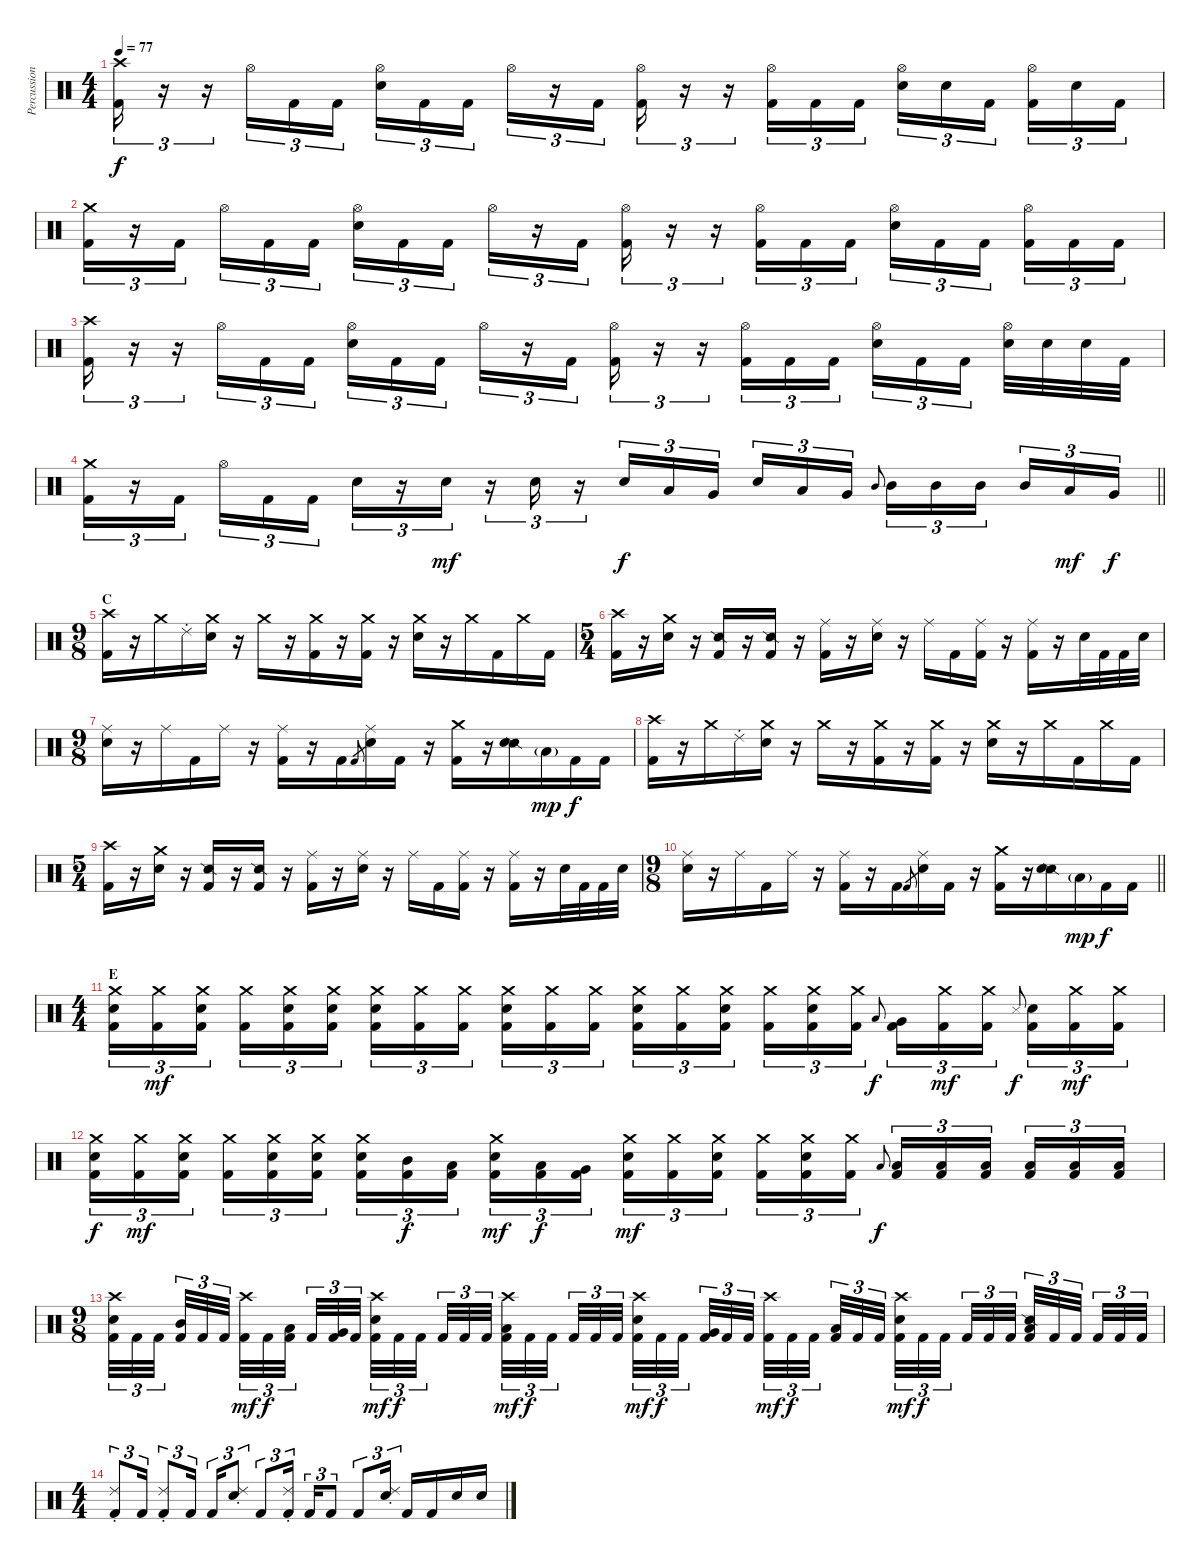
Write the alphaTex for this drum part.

\track ("Percussion" "Percussion") {instrument percussion}
\staff {score}
\articulation defaults
\ts (4 4)
\tempo 77
\clef neutral
\ks c
("Crash high (hit)" "Kick (hit) 2").16{tu (3 2) dy f} r.16{tu (3 2)} r.16{tu (3 2)} "Hi-Hat (open)".16{tu (3 2)} "Kick (hit) 2".16{tu (3 2)} "Kick (hit) 2".16{tu (3 2)} ("Hi-Hat (open)" "Snare (hit) 2").16{tu (3 2)} "Kick (hit) 2".16{tu (3 2)} "Kick (hit) 2".16{tu (3 2) beam splitsecondary} "Hi-Hat (open)".16{tu (3 2)} r.16{tu (3 2)} "Kick (hit) 2".16{tu (3 2)} ("Hi-Hat (open)" "Kick (hit) 2").16{tu (3 2)} r.16{tu (3 2)} r.16{tu (3 2)} ("Hi-Hat (open)" "Kick (hit) 2").16{tu (3 2)} "Kick (hit) 2".16{tu (3 2)} "Kick (hit) 2".16{tu (3 2)} ("Hi-Hat (open)" "Snare (hit) 2").16{tu (3 2)} "Snare (hit) 2".16{tu (3 2)} "Kick (hit) 2".16{tu (3 2) beam splitsecondary} ("Hi-Hat (open)" "Kick (hit) 2").16{tu (3 2)} "Snare (hit) 2".16{tu (3 2)} "Kick (hit) 2".16{tu (3 2)} |
("Crash medium (hit)" "Kick (hit) 2").16{tu (3 2)} r.16{tu (3 2)} "Kick (hit) 2".16{tu (3 2) beam splitsecondary} "Hi-Hat (open)".16{tu (3 2)} "Kick (hit) 2".16{tu (3 2)} "Kick (hit) 2".16{tu (3 2)} ("Hi-Hat (open)" "Snare (hit) 2").16{tu (3 2)} "Kick (hit) 2".16{tu (3 2)} "Kick (hit) 2".16{tu (3 2) beam splitsecondary} "Hi-Hat (open)".16{tu (3 2)} r.16{tu (3 2)} "Kick (hit) 2".16{tu (3 2)} ("Hi-Hat (open)" "Kick (hit) 2").16{tu (3 2)} r.16{tu (3 2)} r.16{tu (3 2)} ("Hi-Hat (open)" "Kick (hit) 2").16{tu (3 2)} "Kick (hit) 2".16{tu (3 2)} "Kick (hit) 2".16{tu (3 2)} ("Hi-Hat (open)" "Snare (hit) 2").16{tu (3 2)} "Kick (hit) 2".16{tu (3 2)} "Kick (hit) 2".16{tu (3 2) beam splitsecondary} ("Hi-Hat (open)" "Kick (hit) 2").16{tu (3 2)} "Kick (hit) 2".16{tu (3 2)} "Kick (hit) 2".16{tu (3 2)} |
("Crash high (hit)" "Kick (hit) 2").16{tu (3 2)} r.16{tu (3 2)} r.16{tu (3 2)} "Hi-Hat (open)".16{tu (3 2)} "Kick (hit) 2".16{tu (3 2)} "Kick (hit) 2".16{tu (3 2)} ("Hi-Hat (open)" "Snare (hit) 2").16{tu (3 2)} "Kick (hit) 2".16{tu (3 2)} "Kick (hit) 2".16{tu (3 2) beam splitsecondary} "Hi-Hat (open)".16{tu (3 2)} r.16{tu (3 2)} "Kick (hit) 2".16{tu (3 2)} ("Hi-Hat (open)" "Kick (hit) 2").16{tu (3 2)} r.16{tu (3 2)} r.16{tu (3 2)} ("Hi-Hat (open)" "Kick (hit) 2").16{tu (3 2)} "Kick (hit) 2".16{tu (3 2)} "Kick (hit) 2".16{tu (3 2)} ("Hi-Hat (open)" "Snare (hit) 2").16{tu (3 2)} "Kick (hit) 2".16{tu (3 2)} "Kick (hit) 2".16{tu (3 2) beam splitsecondary} ("Hi-Hat (open)" "Snare (hit) 2").32 "Snare (hit) 2".32 "Snare (hit) 2".32 "Kick (hit) 2".32 |
\barLineRight lightlight
("Crash medium (hit)" "Kick (hit) 2").16{tu (3 2)} r.16{tu (3 2)} "Kick (hit) 2".16{tu (3 2) beam splitsecondary} "Hi-Hat (open)".16{tu (3 2)} "Kick (hit) 2".16{tu (3 2)} "Kick (hit) 2".16{tu (3 2)} "Snare (hit) 2".16{tu (3 2)} r.16{tu (3 2)} "Snare (hit) 2".16{tu (3 2) dy mf} r.16{tu (3 2)} "Snare (hit) 2".16{tu (3 2)} r.16{tu (3 2)} "Snare (hit) 2".16{tu (3 2) dy f} "Low Tom (hit)".16{tu (3 2)} "Very Low Tom (hit)".16{tu (3 2) beam splitsecondary} "Snare (hit) 2".16{tu (3 2)} "Low Tom (hit)".16{tu (3 2)} "Very Low Tom (hit)".16{tu (3 2)} "Mid Tom (hit)".8{gr onbeat} "Mid Tom (hit)".16{tu (3 2)} "Mid Tom (hit)".16{tu (3 2)} "Mid Tom (hit)".16{tu (3 2) beam splitsecondary} "Mid Tom (hit)".16{tu (3 2)} "Low Tom (hit)".16{tu (3 2) dy mf} "Very Low Tom (hit)".16{tu (3 2) dy f} |
\ts (9 8)
\section ("" "C")
("Crash high (hit)" "Kick (hit) 2").16 r.16 "Crash medium (hit)".16 "Ride (choke) 2".16 ("Crash medium (hit)" "Snare (hit) 2").16 r.16 "Crash medium (hit)".16 r.16 ("Crash medium (hit)" "Kick (hit) 2").16 r.16 ("Crash medium (hit)" "Kick (hit) 2").16 r.16 ("Crash medium (hit)" "Snare (hit) 2").16 r.16 "Crash medium (hit)".16 "Kick (hit) 2".16 "Crash medium (hit)".16 "Kick (hit) 2".16 |
\ts (5 4)
("Crash high (hit)" "Kick (hit) 2").16 r.16 ("Crash medium (hit)" "Snare (hit) 2").16 r.16 ("Snare (side stick) 2" "Kick (hit) 2").16 r.16 ("Snare (side stick) 2" "Kick (hit) 2").16 r.16 ("Ride (middle)" "Kick (hit) 2").16 r.16 ("Ride (middle)" "Snare (hit) 2").16 r.16 "Ride (middle)".16 "Kick (hit) 2".16 ("Ride (middle)" "Kick (hit) 2").16 r.16 ("Ride (middle)" "Kick (hit) 2").16 r.16 "Snare (hit) 2".32 "Kick (hit) 2".32 "Kick (hit) 2".32 "Snare (hit) 2".32 |
\ts (9 8)
("Ride (middle)" "Snare (hit) 2").16 r.16 "Ride (middle)".16 "Kick (hit) 2".16 "Ride (middle)".16 r.16 ("Ride (middle)" "Kick (hit) 2").16 r.16 "Kick (hit) 2".16 "Kick (hit) 2".8{gr} ("Ride (middle)" "Snare (hit) 2").16 "Kick (hit) 2".16 r.16 ("Crash medium (hit)" "Kick (hit) 2").16 r.16 ("Snare (side stick) 2" "Snare (hit) 2").16 "Low Tom (hit)"{g}.16{dy mp} "Kick (hit) 2".16{dy f} "Kick (hit) 2".16 |
("Crash high (hit)" "Kick (hit) 2").16 r.16 "Crash medium (hit)".16 "Ride (choke) 2".16 ("Crash medium (hit)" "Snare (hit) 2").16 r.16 "Crash medium (hit)".16 r.16 ("Crash medium (hit)" "Kick (hit) 2").16 r.16 ("Crash medium (hit)" "Kick (hit) 2").16 r.16 ("Crash medium (hit)" "Snare (hit) 2").16 r.16 "Crash medium (hit)".16 "Kick (hit) 2".16 "Crash medium (hit)".16 "Kick (hit) 2".16 |
\ts (5 4)
("Crash high (hit)" "Kick (hit) 2").16 r.16 ("Crash medium (hit)" "Snare (hit) 2").16 r.16 ("Snare (side stick) 2" "Kick (hit) 2").16 r.16 ("Snare (side stick) 2" "Kick (hit) 2").16 r.16 ("Ride (middle)" "Kick (hit) 2").16 r.16 ("Ride (middle)" "Snare (hit) 2").16 r.16 "Ride (middle)".16 "Kick (hit) 2".16 ("Ride (middle)" "Kick (hit) 2").16 r.16 ("Ride (middle)" "Kick (hit) 2").16 r.16 "Snare (hit) 2".32 "Kick (hit) 2".32 "Kick (hit) 2".32 "Snare (hit) 2".32 |
\ts (9 8)
\barLineRight lightlight
("Ride (middle)" "Snare (hit) 2").16 r.16 "Ride (middle)".16 "Kick (hit) 2".16 "Ride (middle)".16 r.16 ("Ride (middle)" "Kick (hit) 2").16 r.16 "Kick (hit) 2".16 "Kick (hit) 2".8{gr} ("Ride (middle)" "Snare (hit) 2").16 "Kick (hit) 2".16 r.16 ("Crash medium (hit)" "Kick (hit) 2").16 r.16 ("Snare (side stick) 2" "Snare (hit) 2").16 "Low Tom (hit)"{g}.16{dy mp} "Kick (hit) 2".16{dy f} "Kick (hit) 2".16 |
\ts (4 4)
\section ("" "E")
("Crash medium (hit)" "Snare (hit) 2" "Kick (hit) 2").16{tu (3 2)} ("Crash medium (hit)" "Kick (hit) 2").16{tu (3 2) dy mf} ("Crash medium (hit)" "Snare (hit) 2" "Kick (hit) 2").16{tu (3 2) beam splitsecondary} ("Crash medium (hit)" "Kick (hit) 2").16{tu (3 2)} ("Crash medium (hit)" "Snare (hit) 2" "Kick (hit) 2").16{tu (3 2)} ("Crash medium (hit)" "Snare (hit) 2" "Kick (hit) 2").16{tu (3 2)} ("Crash medium (hit)" "Snare (hit) 2" "Kick (hit) 2").16{tu (3 2)} ("Crash medium (hit)" "Kick (hit) 2").16{tu (3 2)} ("Crash medium (hit)" "Kick (hit) 2").16{tu (3 2) beam splitsecondary} ("Crash medium (hit)" "Snare (hit) 2" "Kick (hit) 2").16{tu (3 2)} ("Crash medium (hit)" "Kick (hit) 2").16{tu (3 2)} ("Crash medium (hit)" "Kick (hit) 2").16{tu (3 2)} ("Crash medium (hit)" "Snare (hit) 2" "Kick (hit) 2").16{tu (3 2)} ("Crash medium (hit)" "Kick (hit) 2").16{tu (3 2)} ("Crash medium (hit)" "Snare (hit) 2" "Kick (hit) 2").16{tu (3 2) beam splitsecondary} ("Crash medium (hit)" "Kick (hit) 2").16{tu (3 2)} ("Crash medium (hit)" "Snare (hit) 2" "Kick (hit) 2").16{tu (3 2)} ("Crash medium (hit)" "Kick (hit) 2").16{tu (3 2)} "Low Tom (hit)".8{gr onbeat dy f} ("Very Low Tom (hit)" "Kick (hit) 2").16{tu (3 2)} ("Crash medium (hit)" "Kick (hit) 2").16{tu (3 2) dy mf} ("Crash medium (hit)" "Kick (hit) 2").16{tu (3 2)} "Metronome (hit)".8{gr onbeat dy f beam splitsecondary} ("Snare (hit) 2" "Kick (hit) 2").16{tu (3 2)} ("Crash medium (hit)" "Kick (hit) 2").16{tu (3 2) dy mf} ("Crash medium (hit)" "Kick (hit) 2").16{tu (3 2)} |
("Crash medium (hit)" "Snare (hit) 2" "Kick (hit) 2").16{tu (3 2) dy f} ("Crash medium (hit)" "Kick (hit) 2").16{tu (3 2) dy mf} ("Crash medium (hit)" "Snare (hit) 2" "Kick (hit) 2").16{tu (3 2) beam splitsecondary} ("Crash medium (hit)" "Kick (hit) 2").16{tu (3 2)} ("Crash medium (hit)" "Snare (hit) 2" "Kick (hit) 2").16{tu (3 2)} ("Crash medium (hit)" "Snare (hit) 2" "Kick (hit) 2").16{tu (3 2)} ("Crash medium (hit)" "Snare (hit) 2" "Kick (hit) 2").16{tu (3 2)} ("Mid Tom (hit)" "Kick (hit) 2").16{tu (3 2) dy f} ("Low Tom (hit)" "Kick (hit) 2").16{tu (3 2) beam splitsecondary} ("Crash medium (hit)" "Snare (hit) 2" "Kick (hit) 2").16{tu (3 2) dy mf} ("Low Tom (hit)" "Kick (hit) 2").16{tu (3 2) dy f} ("Very Low Tom (hit)" "Kick (hit) 2").16{tu (3 2)} ("Crash medium (hit)" "Snare (hit) 2" "Kick (hit) 2").16{tu (3 2) dy mf} ("Crash medium (hit)" "Kick (hit) 2").16{tu (3 2)} ("Crash medium (hit)" "Snare (hit) 2" "Kick (hit) 2").16{tu (3 2) beam splitsecondary} ("Crash medium (hit)" "Kick (hit) 2").16{tu (3 2)} ("Crash medium (hit)" "Snare (hit) 2" "Kick (hit) 2").16{tu (3 2)} ("Crash medium (hit)" "Kick (hit) 2").16{tu (3 2)} "Low Tom (hit)".8{gr onbeat dy f} ("Low Tom (hit)" "Kick (hit) 2").16{tu (3 2)} ("Low Tom (hit)" "Kick (hit) 2").16{tu (3 2)} ("Low Tom (hit)" "Kick (hit) 2").16{tu (3 2) beam splitsecondary} ("Low Tom (hit)" "Kick (hit) 2").16{tu (3 2)} ("Low Tom (hit)" "Kick (hit) 2").16{tu (3 2)} ("Low Tom (hit)" "Kick (hit) 2").16{tu (3 2)} |
\ts (9 8)
("Crash high (hit)" "Snare (hit) 2" "Kick (hit) 2").32{tu (3 2)} "Kick (hit) 2".32{tu (3 2)} "Kick (hit) 2".32{tu (3 2) beam splitsecondary} ("Mid Tom (hit)" "Kick (hit) 2").32{tu (3 2)} "Kick (hit) 2".32{tu (3 2)} "Kick (hit) 2".32{tu (3 2) beam splitsecondary} ("Crash high (hit)" "Kick (hit) 2").32{tu (3 2) dy mf} "Kick (hit) 2".32{tu (3 2) dy f} ("Low Tom (hit)" "Kick (hit) 2").32{tu (3 2) beam splitsecondary} "Kick (hit) 2".32{tu (3 2)} ("Very Low Tom (hit)" "Kick (hit) 2").32{tu (3 2)} "Kick (hit) 2".32{tu (3 2) beam splitsecondary} ("Crash high (hit)" "Snare (hit) 2" "Kick (hit) 2").32{tu (3 2) dy mf} "Kick (hit) 2".32{tu (3 2) dy f} "Kick (hit) 2".32{tu (3 2) beam splitsecondary} "Kick (hit) 2".32{tu (3 2)} "Kick (hit) 2".32{tu (3 2)} "Kick (hit) 2".32{tu (3 2)} ("Crash high (hit)" "Low Tom (hit)" "Kick (hit) 2").32{tu (3 2) dy mf} "Kick (hit) 2".32{tu (3 2) dy f} "Kick (hit) 2".32{tu (3 2) beam splitsecondary} "Kick (hit) 2".32{tu (3 2)} "Kick (hit) 2".32{tu (3 2)} "Kick (hit) 2".32{tu (3 2) beam splitsecondary} ("Crash high (hit)" "Snare (hit) 2" "Kick (hit) 2").32{tu (3 2) dy mf} "Kick (hit) 2".32{tu (3 2) dy f} "Kick (hit) 2".32{tu (3 2) beam splitsecondary} ("Very Low Tom (hit)" "Kick (hit) 2").32{tu (3 2)} "Kick (hit) 2".32{tu (3 2)} "Kick (hit) 2".32{tu (3 2) beam splitsecondary} ("Crash high (hit)" "Kick (hit) 2").32{tu (3 2) dy mf} "Kick (hit) 2".32{tu (3 2) dy f} "Kick (hit) 2".32{tu (3 2) beam splitsecondary} ("Low Tom (hit)" "Kick (hit) 2").32{tu (3 2)} "Kick (hit) 2".32{tu (3 2)} "Kick (hit) 2".32{tu (3 2)} ("Crash high (hit)" "Snare (hit) 2" "Kick (hit) 2").32{tu (3 2) dy mf} "Kick (hit) 2".32{tu (3 2) dy f} "Kick (hit) 2".32{tu (3 2) beam splitsecondary} "Kick (hit) 2".32{tu (3 2)} "Kick (hit) 2".32{tu (3 2)} "Kick (hit) 2".32{tu (3 2) beam splitsecondary} ("Snare (side stick) 2" "Low Floor Tom (hit)" "Kick (hit) 2").32{tu (3 2)} "Kick (hit) 2".32{tu (3 2)} "Kick (hit) 2".32{tu (3 2) beam splitsecondary} "Kick (hit) 2".32{tu (3 2)} "Kick (hit) 2".32{tu (3 2)} "Kick (hit) 2".32{tu (3 2)} |
\ts (4 4)
("Ride (choke) 2" "Kick (hit) 2").8{tu (3 2)} "Kick (hit) 2".16{tu (3 2)} ("Ride (choke) 2" "Kick (hit) 2").8{tu (3 2)} "Kick (hit) 2".16{tu (3 2)} "Kick (hit) 2".16{tu (3 2)} ("Ride (choke) 2" "Snare (hit) 2").8{tu (3 2)} "Kick (hit) 2".8{tu (3 2)} ("Ride (choke) 2" "Kick (hit) 2").16{tu (3 2)} "Kick (hit) 2".16{tu (3 2)} "Kick (hit) 2".8{tu (3 2)} "Kick (hit) 2".8{tu (3 2)} ("Ride (choke) 2" "Snare (hit) 2").16{tu (3 2)} "Kick (hit) 2".16 "Kick (hit) 2".16 "Snare (hit) 2".16 "Snare (hit) 2".16
